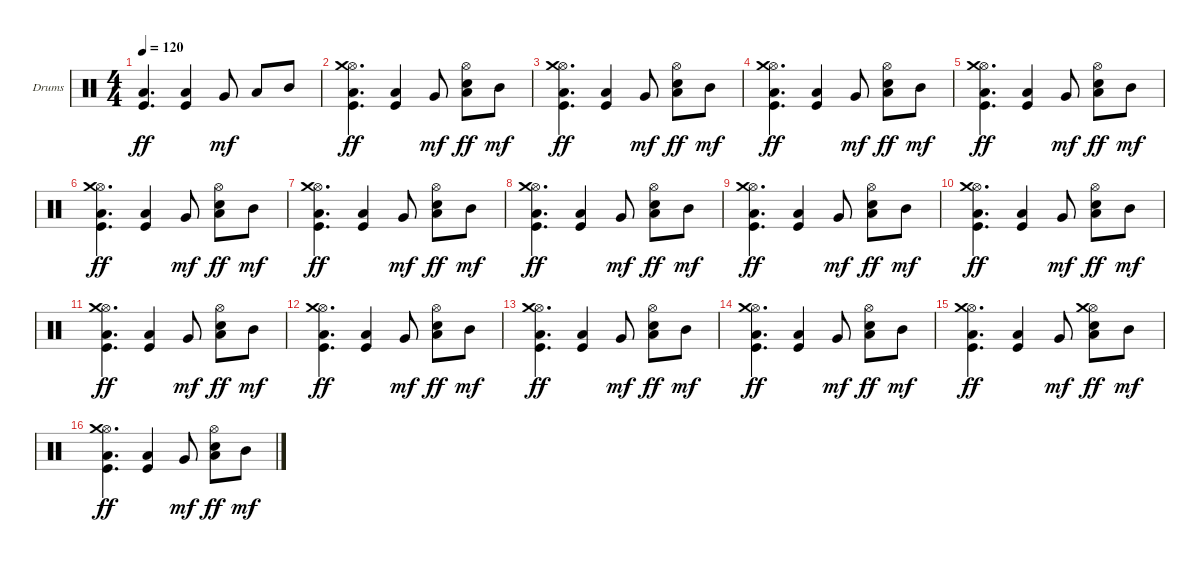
\defaultSystemsLayout 4
\bracketExtendMode groupsimilarinstruments
\firstSystemTrackNameOrientation horizontal
\otherSystemsTrackNameOrientation horizontal
\track ("Drums" "Drums") {instrument percussion}
\staff {score}
\articulation defaults
\ts (4 4)
\tempo 120
\clef neutral
\ks c
("Kick (hit)" "Low Tom (hit)").4{d dy ff} ("Kick (hit)" "Low Tom (hit)").4 "Very Low Tom (hit)".8{dy mf} "Low Tom (hit)".8 "Mid Tom (hit)".8 |
("Kick (hit)" "Low Tom (hit)" "Hi-Hat (open)" "Crash medium (hit)").4{d dy ff} ("Kick (hit)" "Low Tom (hit)").4 "Very Low Tom (hit)".8{dy mf} ("Low Tom (hit)" "Snare (hit) 2" "Hi-Hat (open)").8{dy ff} "Mid Tom (hit)".8{dy mf} |
("Kick (hit)" "Low Tom (hit)" "Hi-Hat (open)" "Crash medium (hit)").4{d dy ff} ("Kick (hit)" "Low Tom (hit)").4 "Very Low Tom (hit)".8{dy mf} ("Low Tom (hit)" "Snare (hit) 2" "Hi-Hat (open)").8{dy ff} "Mid Tom (hit)".8{dy mf} |
("Kick (hit)" "Low Tom (hit)" "Hi-Hat (open)" "Crash medium (hit)").4{d dy ff} ("Kick (hit)" "Low Tom (hit)").4 "Very Low Tom (hit)".8{dy mf} ("Low Tom (hit)" "Snare (hit) 2" "Hi-Hat (open)").8{dy ff} "Mid Tom (hit)".8{dy mf} |
("Kick (hit)" "Low Tom (hit)" "Hi-Hat (open)" "Crash medium (hit)").4{d dy ff} ("Kick (hit)" "Low Tom (hit)").4 "Very Low Tom (hit)".8{dy mf} ("Low Tom (hit)" "Snare (hit) 2" "Hi-Hat (open)").8{dy ff} "Mid Tom (hit)".8{dy mf} |
("Kick (hit)" "Low Tom (hit)" "Hi-Hat (open)" "Crash medium (hit)").4{d dy ff} ("Kick (hit)" "Low Tom (hit)").4 "Very Low Tom (hit)".8{dy mf} ("Low Tom (hit)" "Snare (hit) 2" "Hi-Hat (open)").8{dy ff} "Mid Tom (hit)".8{dy mf} |
("Kick (hit)" "Low Tom (hit)" "Hi-Hat (open)" "Crash medium (hit)").4{d dy ff} ("Kick (hit)" "Low Tom (hit)").4 "Very Low Tom (hit)".8{dy mf} ("Low Tom (hit)" "Snare (hit) 2" "Hi-Hat (open)").8{dy ff} "Mid Tom (hit)".8{dy mf} |
("Kick (hit)" "Low Tom (hit)" "Hi-Hat (open)" "Crash medium (hit)").4{d dy ff} ("Kick (hit)" "Low Tom (hit)").4 "Very Low Tom (hit)".8{dy mf} ("Low Tom (hit)" "Snare (hit) 2" "Hi-Hat (open)").8{dy ff} "Mid Tom (hit)".8{dy mf} |
("Kick (hit)" "Low Tom (hit)" "Hi-Hat (open)" "Crash medium (hit)").4{d dy ff} ("Kick (hit)" "Low Tom (hit)").4 "Very Low Tom (hit)".8{dy mf} ("Low Tom (hit)" "Snare (hit) 2" "Hi-Hat (open)").8{dy ff} "Mid Tom (hit)".8{dy mf} |
("Kick (hit)" "Low Tom (hit)" "Hi-Hat (open)" "Crash medium (hit)").4{d dy ff} ("Kick (hit)" "Low Tom (hit)").4 "Very Low Tom (hit)".8{dy mf} ("Low Tom (hit)" "Snare (hit) 2" "Hi-Hat (open)").8{dy ff} "Mid Tom (hit)".8{dy mf} |
("Kick (hit)" "Low Tom (hit)" "Hi-Hat (open)" "Crash medium (hit)").4{d dy ff} ("Kick (hit)" "Low Tom (hit)").4 "Very Low Tom (hit)".8{dy mf} ("Low Tom (hit)" "Snare (hit) 2" "Hi-Hat (open)").8{dy ff} "Mid Tom (hit)".8{dy mf} |
("Kick (hit)" "Low Tom (hit)" "Hi-Hat (open)" "Crash medium (hit)").4{d dy ff} ("Kick (hit)" "Low Tom (hit)").4 "Very Low Tom (hit)".8{dy mf} ("Low Tom (hit)" "Snare (hit) 2" "Hi-Hat (open)").8{dy ff} "Mid Tom (hit)".8{dy mf} |
("Kick (hit)" "Low Tom (hit)" "Hi-Hat (open)" "Crash medium (hit)").4{d dy ff} ("Kick (hit)" "Low Tom (hit)").4 "Very Low Tom (hit)".8{dy mf} ("Low Tom (hit)" "Snare (hit) 2" "Hi-Hat (open)").8{dy ff} "Mid Tom (hit)".8{dy mf} |
("Kick (hit)" "Low Tom (hit)" "Hi-Hat (open)" "Crash medium (hit)").4{d dy ff} ("Kick (hit)" "Low Tom (hit)").4 "Very Low Tom (hit)".8{dy mf} ("Low Tom (hit)" "Snare (hit) 2" "Hi-Hat (open)").8{dy ff} "Mid Tom (hit)".8{dy mf} |
("Kick (hit)" "Low Tom (hit)" "Hi-Hat (open)" "Crash medium (hit)").4{d dy ff} ("Kick (hit)" "Low Tom (hit)").4 "Very Low Tom (hit)".8{dy mf} ("Low Tom (hit)" "Snare (hit) 2" "Hi-Hat (open)" "Crash medium (hit)").8{dy ff} "Mid Tom (hit)".8{dy mf} |
("Kick (hit)" "Low Tom (hit)" "Hi-Hat (open)" "Crash medium (hit)").4{d dy ff} ("Kick (hit)" "Low Tom (hit)").4 "Very Low Tom (hit)".8{dy mf} ("Low Tom (hit)" "Snare (hit) 2" "Hi-Hat (open)").8{dy ff} "Mid Tom (hit)".8{dy mf}
